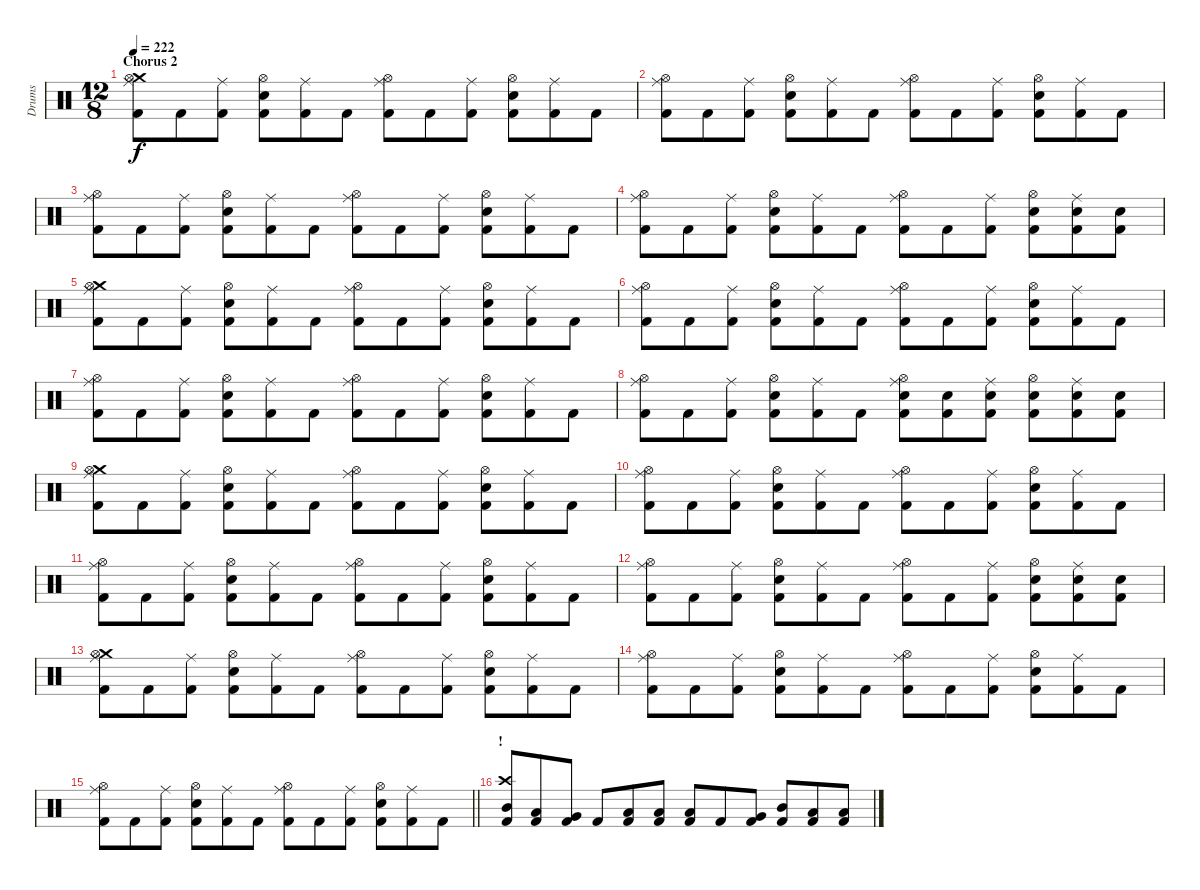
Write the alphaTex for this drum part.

\track ("Drums" "Drums") {instrument percussion}
\staff {score}
\articulation defaults
\ts (12 8)
\section ("" "Chorus 2")
\tempo 222
\clef neutral
\ks c
("Crash medium (hit)" "Hi-Hat (open)" "Ride (middle)" "Kick (hit) 2").8{dy f} "Kick (hit) 2".8 ("Ride (middle)" "Kick (hit) 2").8 ("Hi-Hat (open)" "Snare (hit) 2" "Kick (hit) 2").8 ("Ride (middle)" "Kick (hit) 2").8 "Kick (hit) 2".8 ("Hi-Hat (open)" "Ride (middle)" "Kick (hit) 2").8 "Kick (hit) 2".8 ("Ride (middle)" "Kick (hit) 2").8 ("Hi-Hat (open)" "Snare (hit) 2" "Kick (hit) 2").8 ("Ride (middle)" "Kick (hit) 2").8 "Kick (hit) 2".8 |
("Hi-Hat (open)" "Ride (middle)" "Kick (hit) 2").8 "Kick (hit) 2".8 ("Ride (middle)" "Kick (hit) 2").8 ("Hi-Hat (open)" "Snare (hit) 2" "Kick (hit) 2").8 ("Ride (middle)" "Kick (hit) 2").8 "Kick (hit) 2".8 ("Hi-Hat (open)" "Ride (middle)" "Kick (hit) 2").8 "Kick (hit) 2".8 ("Ride (middle)" "Kick (hit) 2").8 ("Hi-Hat (open)" "Snare (hit) 2" "Kick (hit) 2").8 ("Ride (middle)" "Kick (hit) 2").8 "Kick (hit) 2".8 |
("Hi-Hat (open)" "Ride (middle)" "Kick (hit) 2").8 "Kick (hit) 2".8 ("Ride (middle)" "Kick (hit) 2").8 ("Hi-Hat (open)" "Snare (hit) 2" "Kick (hit) 2").8 ("Ride (middle)" "Kick (hit) 2").8 "Kick (hit) 2".8 ("Hi-Hat (open)" "Ride (middle)" "Kick (hit) 2").8 "Kick (hit) 2".8 ("Ride (middle)" "Kick (hit) 2").8 ("Hi-Hat (open)" "Snare (hit) 2" "Kick (hit) 2").8 ("Ride (middle)" "Kick (hit) 2").8 "Kick (hit) 2".8 |
("Hi-Hat (open)" "Ride (middle)" "Kick (hit) 2").8 "Kick (hit) 2".8 ("Ride (middle)" "Kick (hit) 2").8 ("Hi-Hat (open)" "Snare (hit) 2" "Kick (hit) 2").8 ("Ride (middle)" "Kick (hit) 2").8 "Kick (hit) 2".8 ("Hi-Hat (open)" "Ride (middle)" "Kick (hit) 2").8 "Kick (hit) 2".8 ("Ride (middle)" "Kick (hit) 2").8 ("Hi-Hat (open)" "Snare (hit) 2" "Kick (hit) 2").8 ("Ride (middle)" "Snare (hit) 2" "Kick (hit) 2").8 ("Snare (hit) 2" "Kick (hit) 2").8 |
("Crash medium (hit)" "Hi-Hat (open)" "Ride (middle)" "Kick (hit) 2").8 "Kick (hit) 2".8 ("Ride (middle)" "Kick (hit) 2").8 ("Hi-Hat (open)" "Snare (hit) 2" "Kick (hit) 2").8 ("Ride (middle)" "Kick (hit) 2").8 "Kick (hit) 2".8 ("Hi-Hat (open)" "Ride (middle)" "Kick (hit) 2").8 "Kick (hit) 2".8 ("Ride (middle)" "Kick (hit) 2").8 ("Hi-Hat (open)" "Snare (hit) 2" "Kick (hit) 2").8 ("Ride (middle)" "Kick (hit) 2").8 "Kick (hit) 2".8 |
("Hi-Hat (open)" "Ride (middle)" "Kick (hit) 2").8 "Kick (hit) 2".8 ("Ride (middle)" "Kick (hit) 2").8 ("Hi-Hat (open)" "Snare (hit) 2" "Kick (hit) 2").8 ("Ride (middle)" "Kick (hit) 2").8 "Kick (hit) 2".8 ("Hi-Hat (open)" "Ride (middle)" "Kick (hit) 2").8 "Kick (hit) 2".8 ("Ride (middle)" "Kick (hit) 2").8 ("Hi-Hat (open)" "Snare (hit) 2" "Kick (hit) 2").8 ("Ride (middle)" "Kick (hit) 2").8 "Kick (hit) 2".8 |
("Hi-Hat (open)" "Ride (middle)" "Kick (hit) 2").8 "Kick (hit) 2".8 ("Ride (middle)" "Kick (hit) 2").8 ("Hi-Hat (open)" "Snare (hit) 2" "Kick (hit) 2").8 ("Ride (middle)" "Kick (hit) 2").8 "Kick (hit) 2".8 ("Hi-Hat (open)" "Ride (middle)" "Kick (hit) 2").8 "Kick (hit) 2".8 ("Ride (middle)" "Kick (hit) 2").8 ("Hi-Hat (open)" "Snare (hit) 2" "Kick (hit) 2").8 ("Ride (middle)" "Kick (hit) 2").8 "Kick (hit) 2".8 |
("Hi-Hat (open)" "Ride (middle)" "Kick (hit) 2").8 "Kick (hit) 2".8 ("Ride (middle)" "Kick (hit) 2").8 ("Hi-Hat (open)" "Snare (hit) 2" "Kick (hit) 2").8 ("Ride (middle)" "Kick (hit) 2").8 "Kick (hit) 2".8 ("Hi-Hat (open)" "Ride (middle)" "Snare (hit) 2" "Kick (hit) 2").8 ("Snare (hit) 2" "Kick (hit) 2").8 ("Ride (middle)" "Snare (hit) 2" "Kick (hit) 2").8 ("Hi-Hat (open)" "Snare (hit) 2" "Kick (hit) 2").8 ("Ride (middle)" "Snare (hit) 2" "Kick (hit) 2").8 ("Snare (hit) 2" "Kick (hit) 2").8 |
("Crash medium (hit)" "Hi-Hat (open)" "Ride (middle)" "Kick (hit) 2").8 "Kick (hit) 2".8 ("Ride (middle)" "Kick (hit) 2").8 ("Hi-Hat (open)" "Snare (hit) 2" "Kick (hit) 2").8 ("Ride (middle)" "Kick (hit) 2").8 "Kick (hit) 2".8 ("Hi-Hat (open)" "Ride (middle)" "Kick (hit) 2").8 "Kick (hit) 2".8 ("Ride (middle)" "Kick (hit) 2").8 ("Hi-Hat (open)" "Snare (hit) 2" "Kick (hit) 2").8 ("Ride (middle)" "Kick (hit) 2").8 "Kick (hit) 2".8 |
("Hi-Hat (open)" "Ride (middle)" "Kick (hit) 2").8 "Kick (hit) 2".8 ("Ride (middle)" "Kick (hit) 2").8 ("Hi-Hat (open)" "Snare (hit) 2" "Kick (hit) 2").8 ("Ride (middle)" "Kick (hit) 2").8 "Kick (hit) 2".8 ("Hi-Hat (open)" "Ride (middle)" "Kick (hit) 2").8 "Kick (hit) 2".8 ("Ride (middle)" "Kick (hit) 2").8 ("Hi-Hat (open)" "Snare (hit) 2" "Kick (hit) 2").8 ("Ride (middle)" "Kick (hit) 2").8 "Kick (hit) 2".8 |
("Hi-Hat (open)" "Ride (middle)" "Kick (hit) 2").8 "Kick (hit) 2".8 ("Ride (middle)" "Kick (hit) 2").8 ("Hi-Hat (open)" "Snare (hit) 2" "Kick (hit) 2").8 ("Ride (middle)" "Kick (hit) 2").8 "Kick (hit) 2".8 ("Hi-Hat (open)" "Ride (middle)" "Kick (hit) 2").8 "Kick (hit) 2".8 ("Ride (middle)" "Kick (hit) 2").8 ("Hi-Hat (open)" "Snare (hit) 2" "Kick (hit) 2").8 ("Ride (middle)" "Kick (hit) 2").8 "Kick (hit) 2".8 |
("Hi-Hat (open)" "Ride (middle)" "Kick (hit) 2").8 "Kick (hit) 2".8 ("Ride (middle)" "Kick (hit) 2").8 ("Hi-Hat (open)" "Snare (hit) 2" "Kick (hit) 2").8 ("Ride (middle)" "Kick (hit) 2").8 "Kick (hit) 2".8 ("Hi-Hat (open)" "Ride (middle)" "Kick (hit) 2").8 "Kick (hit) 2".8 ("Ride (middle)" "Kick (hit) 2").8 ("Hi-Hat (open)" "Snare (hit) 2" "Kick (hit) 2").8 ("Ride (middle)" "Snare (hit) 2" "Kick (hit) 2").8 ("Snare (hit) 2" "Kick (hit) 2").8 |
("Crash medium (hit)" "Hi-Hat (open)" "Ride (middle)" "Kick (hit) 2").8 "Kick (hit) 2".8 ("Ride (middle)" "Kick (hit) 2").8 ("Hi-Hat (open)" "Snare (hit) 2" "Kick (hit) 2").8 ("Ride (middle)" "Kick (hit) 2").8 "Kick (hit) 2".8 ("Hi-Hat (open)" "Ride (middle)" "Kick (hit) 2").8 "Kick (hit) 2".8 ("Ride (middle)" "Kick (hit) 2").8 ("Hi-Hat (open)" "Snare (hit) 2" "Kick (hit) 2").8 ("Ride (middle)" "Kick (hit) 2").8 "Kick (hit) 2".8 |
("Hi-Hat (open)" "Ride (middle)" "Kick (hit) 2").8 "Kick (hit) 2".8 ("Ride (middle)" "Kick (hit) 2").8 ("Hi-Hat (open)" "Snare (hit) 2" "Kick (hit) 2").8 ("Ride (middle)" "Kick (hit) 2").8 "Kick (hit) 2".8 ("Hi-Hat (open)" "Ride (middle)" "Kick (hit) 2").8 "Kick (hit) 2".8 ("Ride (middle)" "Kick (hit) 2").8 ("Hi-Hat (open)" "Snare (hit) 2" "Kick (hit) 2").8 ("Ride (middle)" "Kick (hit) 2").8 "Kick (hit) 2".8 |
\barLineRight lightlight
("Hi-Hat (open)" "Ride (middle)" "Kick (hit) 2").8 "Kick (hit) 2".8 ("Ride (middle)" "Kick (hit) 2").8 ("Hi-Hat (open)" "Snare (hit) 2" "Kick (hit) 2").8 ("Ride (middle)" "Kick (hit) 2").8 "Kick (hit) 2".8 ("Hi-Hat (open)" "Ride (middle)" "Kick (hit) 2").8 "Kick (hit) 2".8 ("Ride (middle)" "Kick (hit) 2").8 ("Hi-Hat (open)" "Snare (hit) 2" "Kick (hit) 2").8 ("Ride (middle)" "Kick (hit) 2").8 "Kick (hit) 2".8 |
\section ("" "!")
("Crash high (hit)" "Mid Tom (hit)" "Kick (hit) 2").8 ("Low Tom (hit)" "Kick (hit) 2").8 ("Very Low Tom (hit)" "Kick (hit) 2").8 "Kick (hit) 2".8 ("Low Floor Tom (hit)" "Kick (hit) 2").8 ("Low Floor Tom (hit)" "Kick (hit) 2").8 ("Low Tom (hit)" "Kick (hit) 2").8 "Kick (hit) 2".8 ("Very Low Tom (hit)" "Kick (hit) 2").8 ("Mid Tom (hit)" "Kick (hit) 2").8 ("Low Floor Tom (hit)" "Kick (hit) 2").8 ("Low Tom (hit)" "Kick (hit) 2").8
